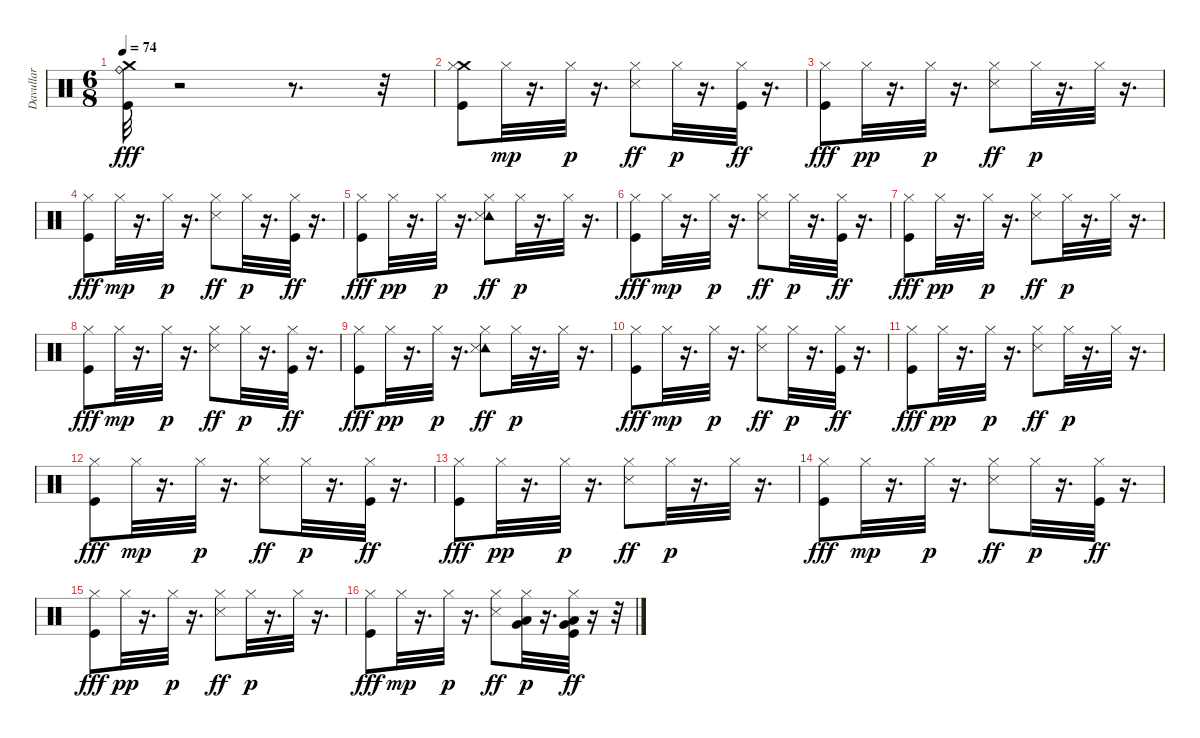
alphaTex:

\track ("Davullar" "Davullar") {instrument percussion}
\staff {score}
\articulation defaults
\ts (6 8)
\tempo 74
\clef neutral
\ks c
("Crash medium (hit)" "Ride (bell)" "Kick (hit)").32{dy fff} r.2 r.8{d} r.32 |
("Crash medium (hit)" "Hi-Hat (closed)" "Kick (hit)").8 "Hi-Hat (closed)".32{dy mp} r.16{d} "Hi-Hat (closed)".32{dy p} r.16{d} ("Hi-Hat (closed)" "Snare (side stick) 3").8{dy ff} "Hi-Hat (closed)".32{dy p} r.16{d} ("Hi-Hat (closed)" "Kick (hit)").32{dy ff} r.16{d} |
("Hi-Hat (closed)" "Kick (hit)").8{dy fff} "Hi-Hat (closed)".32{dy pp} r.16{d} "Hi-Hat (closed)".32{dy p} r.16{d} ("Hi-Hat (closed)" "Snare (side stick) 3").8{dy ff} "Hi-Hat (closed)".32{dy p} r.16{d} "Hi-Hat (closed)".32 r.16{d} |
("Hi-Hat (closed)" "Kick (hit)").8{dy fff} "Hi-Hat (closed)".32{dy mp} r.16{d} "Hi-Hat (closed)".32{dy p} r.16{d} ("Hi-Hat (closed)" "Snare (side stick) 3").8{dy ff} "Hi-Hat (closed)".32{dy p} r.16{d} ("Hi-Hat (closed)" "Kick (hit)").32{dy ff} r.16{d} |
("Hi-Hat (closed)" "Kick (hit)").8{dy fff} "Hi-Hat (closed)".32{dy pp} r.16{d} "Hi-Hat (closed)".32{dy p} r.16{d} ("Tambourine (hit)" "Hi-Hat (closed)" "Snare (side stick) 3").8{dy ff} "Hi-Hat (closed)".32{dy p} r.16{d} "Hi-Hat (closed)".32 r.16{d} |
("Hi-Hat (closed)" "Kick (hit)").8{dy fff} "Hi-Hat (closed)".32{dy mp} r.16{d} "Hi-Hat (closed)".32{dy p} r.16{d} ("Hi-Hat (closed)" "Snare (side stick) 3").8{dy ff} "Hi-Hat (closed)".32{dy p} r.16{d} ("Hi-Hat (closed)" "Kick (hit)").32{dy ff} r.16{d} |
("Hi-Hat (closed)" "Kick (hit)").8{dy fff} "Hi-Hat (closed)".32{dy pp} r.16{d} "Hi-Hat (closed)".32{dy p} r.16{d} ("Hi-Hat (closed)" "Snare (side stick) 3").8{dy ff} "Hi-Hat (closed)".32{dy p} r.16{d} "Hi-Hat (closed)".32 r.16{d} |
("Hi-Hat (closed)" "Kick (hit)").8{dy fff} "Hi-Hat (closed)".32{dy mp} r.16{d} "Hi-Hat (closed)".32{dy p} r.16{d} ("Hi-Hat (closed)" "Snare (side stick) 3").8{dy ff} "Hi-Hat (closed)".32{dy p} r.16{d} ("Hi-Hat (closed)" "Kick (hit)").32{dy ff} r.16{d} |
("Hi-Hat (closed)" "Kick (hit)").8{dy fff} "Hi-Hat (closed)".32{dy pp} r.16{d} "Hi-Hat (closed)".32{dy p} r.16{d} ("Tambourine (hit)" "Hi-Hat (closed)" "Snare (side stick) 3").8{dy ff} "Hi-Hat (closed)".32{dy p} r.16{d} "Hi-Hat (closed)".32 r.16{d} |
("Hi-Hat (closed)" "Kick (hit)").8{dy fff} "Hi-Hat (closed)".32{dy mp} r.16{d} "Hi-Hat (closed)".32{dy p} r.16{d} ("Hi-Hat (closed)" "Snare (side stick) 3").8{dy ff} "Hi-Hat (closed)".32{dy p} r.16{d} ("Hi-Hat (closed)" "Kick (hit)").32{dy ff} r.16{d} |
("Hi-Hat (closed)" "Kick (hit)").8{dy fff} "Hi-Hat (closed)".32{dy pp} r.16{d} "Hi-Hat (closed)".32{dy p} r.16{d} ("Hi-Hat (closed)" "Snare (side stick) 3").8{dy ff} "Hi-Hat (closed)".32{dy p} r.16{d} "Hi-Hat (closed)".32 r.16{d} |
("Hi-Hat (closed)" "Kick (hit)").8{dy fff} "Hi-Hat (closed)".32{dy mp} r.16{d} "Hi-Hat (closed)".32{dy p} r.16{d} ("Hi-Hat (closed)" "Snare (side stick) 3").8{dy ff} "Hi-Hat (closed)".32{dy p} r.16{d} ("Hi-Hat (closed)" "Kick (hit)").32{dy ff} r.16{d} |
("Hi-Hat (closed)" "Kick (hit)").8{dy fff} "Hi-Hat (closed)".32{dy pp} r.16{d} "Hi-Hat (closed)".32{dy p} r.16{d} ("Hi-Hat (closed)" "Snare (side stick) 3").8{dy ff} "Hi-Hat (closed)".32{dy p} r.16{d} "Hi-Hat (closed)".32 r.16{d} |
("Hi-Hat (closed)" "Kick (hit)").8{dy fff} "Hi-Hat (closed)".32{dy mp} r.16{d} "Hi-Hat (closed)".32{dy p} r.16{d} ("Hi-Hat (closed)" "Snare (side stick) 3").8{dy ff} "Hi-Hat (closed)".32{dy p} r.16{d} ("Hi-Hat (closed)" "Kick (hit)").32{dy ff} r.16{d} |
("Hi-Hat (closed)" "Kick (hit)").8{dy fff} "Hi-Hat (closed)".32{dy pp} r.16{d} "Hi-Hat (closed)".32{dy p} r.16{d} ("Hi-Hat (closed)" "Snare (side stick) 3").8{dy ff} "Hi-Hat (closed)".32{dy p} r.16{d} "Hi-Hat (closed)".32 r.16{d} |
("Hi-Hat (closed)" "Kick (hit)").8{dy fff} "Hi-Hat (closed)".32{dy mp} r.16{d} "Hi-Hat (closed)".32{dy p} r.16{d} ("Hi-Hat (closed)" "Snare (side stick) 3").8{dy ff} ("Very Low Tom (hit)" "Low Floor Tom (hit)" "Hi-Hat (closed)").32{dy p} r.16{d} ("Very Low Tom (hit)" "Low Floor Tom (hit)" "Hi-Hat (closed)" "Kick (hit)").32{dy ff} r.16 r.32
